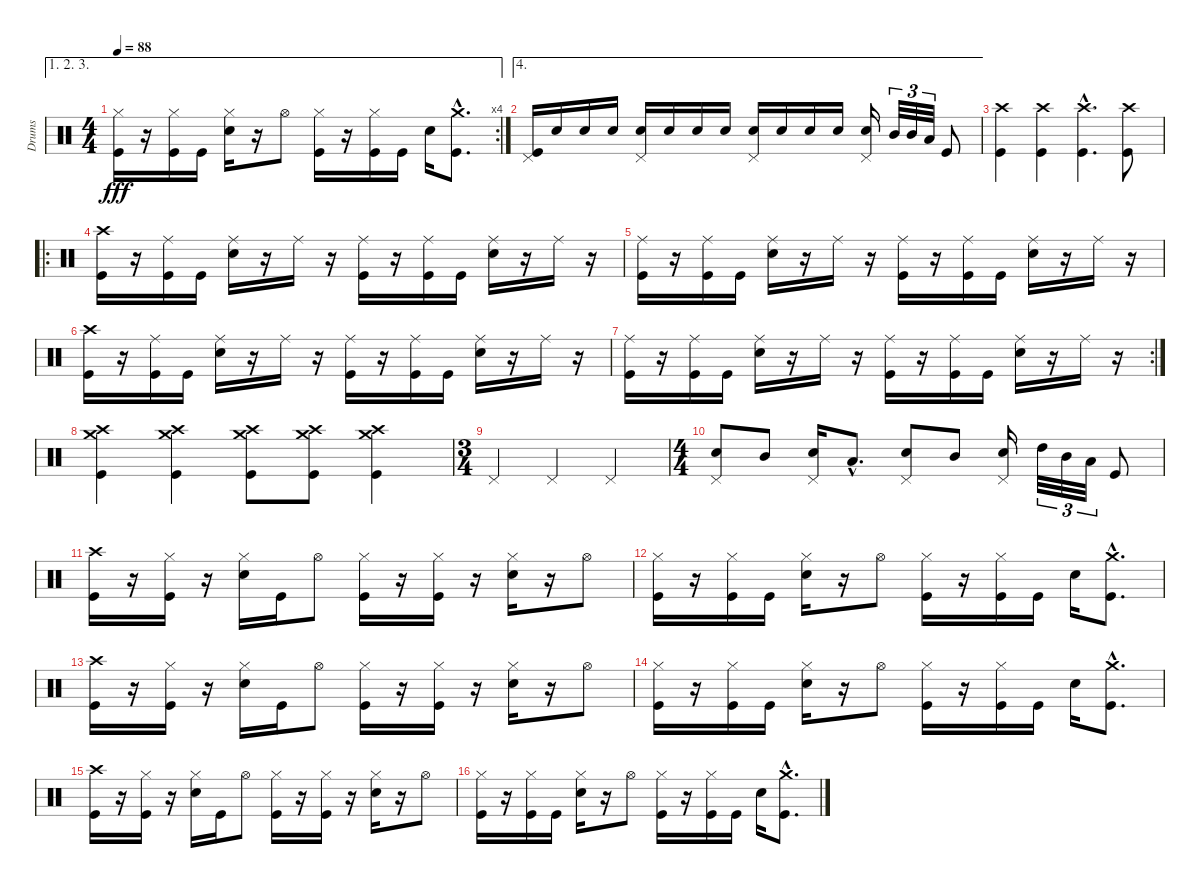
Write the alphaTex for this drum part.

\track ("Drums" "Drums") {instrument percussion}
\staff {score}
\articulation defaults
\ae (1 2 3)
\rc 4
\ts (4 4)
\tempo 88
\clef neutral
\ks c
("Hi-Hat (closed)" "Kick (hit)").16{dy fff} r.16 ("Hi-Hat (closed)" "Kick (hit)").16 "Kick (hit)".16 ("Hi-Hat (closed)" "Electric Snare (hit)").16 r.16 "Hi-Hat (open)".8 ("Hi-Hat (closed)" "Kick (hit)").16 r.16 ("Hi-Hat (closed)" "Kick (hit)").16 "Kick (hit)".16 "Electric Snare (hit)".16 ("Crash medium (hit)"{hac} "Kick (hit)"{hac}).8{d} |
\ae 4
("Pedal Hi-Hat (hit)" "Kick (hit)").16 "Electric Snare (hit)".16 "Electric Snare (hit)".16 "Electric Snare (hit)".16 ("Pedal Hi-Hat (hit)" "Electric Snare (hit)").16 "Electric Snare (hit)".16 "Electric Snare (hit)".16 "Electric Snare (hit)".16 ("Pedal Hi-Hat (hit)" "Electric Snare (hit)").16 "Electric Snare (hit)".16 "Electric Snare (hit)".16 "Electric Snare (hit)".16 ("Pedal Hi-Hat (hit)" "Electric Snare (hit)").16 "Mid Tom (hit)".32{tu (3 2)} "Mid Tom (hit)".32{tu (3 2)} "Low Tom (hit)".32{tu (3 2)} "Kick (hit)".8 |
("Crash high (hit)" "Kick (hit)").4 ("Crash high (hit)" "Kick (hit)").4 ("Crash high (hit)"{hac} "Kick (hit)"{hac}).4{d} ("Crash high (hit)" "Kick (hit)").8 |
\ro
("Crash high (hit)" "Kick (hit)").16 r.16 ("Ride (middle)" "Kick (hit)").16 "Kick (hit)".16 ("Ride (middle)" "Electric Snare (hit)").16 r.16 "Ride (middle)".16 r.16 ("Ride (middle)" "Kick (hit)").16 r.16 ("Ride (middle)" "Kick (hit)").16 "Kick (hit)".16 ("Ride (middle)" "Electric Snare (hit)").16 r.16 "Ride (middle)".16 r.16 |
("Ride (middle)" "Kick (hit)").16 r.16 ("Ride (middle)" "Kick (hit)").16 "Kick (hit)".16 ("Ride (middle)" "Electric Snare (hit)").16 r.16 "Ride (middle)".16 r.16 ("Ride (middle)" "Kick (hit)").16 r.16 ("Ride (middle)" "Kick (hit)").16 "Kick (hit)".16 ("Ride (middle)" "Electric Snare (hit)").16 r.16 "Ride (middle)".16 r.16 |
("Crash high (hit)" "Kick (hit)").16 r.16 ("Ride (middle)" "Kick (hit)").16 "Kick (hit)".16 ("Ride (middle)" "Electric Snare (hit)").16 r.16 "Ride (middle)".16 r.16 ("Ride (middle)" "Kick (hit)").16 r.16 ("Ride (middle)" "Kick (hit)").16 "Kick (hit)".16 ("Ride (middle)" "Electric Snare (hit)").16 r.16 "Ride (middle)".16 r.16 |
\rc 2
("Ride (middle)" "Kick (hit)").16 r.16 ("Ride (middle)" "Kick (hit)").16 "Kick (hit)".16 ("Ride (middle)" "Electric Snare (hit)").16 r.16 "Ride (middle)".16 r.16 ("Ride (middle)" "Kick (hit)").16 r.16 ("Ride (middle)" "Kick (hit)").16 "Kick (hit)".16 ("Ride (middle)" "Electric Snare (hit)").16 r.16 "Ride (middle)".16 r.16 |
("Crash medium (hit)" "Crash high (hit)" "Kick (hit)").4 ("Crash medium (hit)" "Crash high (hit)" "Kick (hit)").4 ("Crash medium (hit)" "Crash high (hit)" "Kick (hit)").8 ("Crash medium (hit)" "Crash high (hit)" "Kick (hit)").8 ("Crash medium (hit)" "Crash high (hit)" "Kick (hit)").4 |
\ts (3 4)
"Pedal Hi-Hat (hit)".4 "Pedal Hi-Hat (hit)".4 "Pedal Hi-Hat (hit)".4 |
\ts (4 4)
("Pedal Hi-Hat (hit)" "Electric Snare (hit)").8 "Mid Tom (hit)".8 ("Pedal Hi-Hat (hit)" "Electric Snare (hit)").16 "Low Tom (hit)"{hac}.8{d} ("Pedal Hi-Hat (hit)" "Electric Snare (hit)").8 "Mid Tom (hit)".8 ("Pedal Hi-Hat (hit)" "Electric Snare (hit)").16 "High Tom (hit)".32{tu (3 2)} "Mid Tom (hit)".32{tu (3 2)} "Low Tom (hit)".32{tu (3 2)} "Kick (hit)".8 |
("Crash high (hit)" "Kick (hit)").16 r.16 ("Hi-Hat (closed)" "Kick (hit)").16 r.16 ("Hi-Hat (closed)" "Electric Snare (hit)").16 "Kick (hit)".16 "Hi-Hat (open)".8 ("Hi-Hat (closed)" "Kick (hit)").16 r.16 ("Hi-Hat (closed)" "Kick (hit)").16 r.16 ("Hi-Hat (closed)" "Electric Snare (hit)").16 r.16 "Hi-Hat (open)".8 |
("Hi-Hat (closed)" "Kick (hit)").16 r.16 ("Hi-Hat (closed)" "Kick (hit)").16 "Kick (hit)".16 ("Hi-Hat (closed)" "Electric Snare (hit)").16 r.16 "Hi-Hat (open)".8 ("Hi-Hat (closed)" "Kick (hit)").16 r.16 ("Hi-Hat (closed)" "Kick (hit)").16 "Kick (hit)".16 "Electric Snare (hit)".16 ("Crash medium (hit)"{hac} "Kick (hit)"{hac}).8{d} |
("Crash high (hit)" "Kick (hit)").16 r.16 ("Hi-Hat (closed)" "Kick (hit)").16 r.16 ("Hi-Hat (closed)" "Electric Snare (hit)").16 "Kick (hit)".16 "Hi-Hat (open)".8 ("Hi-Hat (closed)" "Kick (hit)").16 r.16 ("Hi-Hat (closed)" "Kick (hit)").16 r.16 ("Hi-Hat (closed)" "Electric Snare (hit)").16 r.16 "Hi-Hat (open)".8 |
("Hi-Hat (closed)" "Kick (hit)").16 r.16 ("Hi-Hat (closed)" "Kick (hit)").16 "Kick (hit)".16 ("Hi-Hat (closed)" "Electric Snare (hit)").16 r.16 "Hi-Hat (open)".8 ("Hi-Hat (closed)" "Kick (hit)").16 r.16 ("Hi-Hat (closed)" "Kick (hit)").16 "Kick (hit)".16 "Electric Snare (hit)".16 ("Crash medium (hit)"{hac} "Kick (hit)"{hac}).8{d} |
("Crash high (hit)" "Kick (hit)").16 r.16 ("Hi-Hat (closed)" "Kick (hit)").16 r.16 ("Hi-Hat (closed)" "Electric Snare (hit)").16 "Kick (hit)".16 "Hi-Hat (open)".8 ("Hi-Hat (closed)" "Kick (hit)").16 r.16 ("Hi-Hat (closed)" "Kick (hit)").16 r.16 ("Hi-Hat (closed)" "Electric Snare (hit)").16 r.16 "Hi-Hat (open)".8 |
("Hi-Hat (closed)" "Kick (hit)").16 r.16 ("Hi-Hat (closed)" "Kick (hit)").16 "Kick (hit)".16 ("Hi-Hat (closed)" "Electric Snare (hit)").16 r.16 "Hi-Hat (open)".8 ("Hi-Hat (closed)" "Kick (hit)").16 r.16 ("Hi-Hat (closed)" "Kick (hit)").16 "Kick (hit)".16 "Electric Snare (hit)".16 ("Crash medium (hit)"{hac} "Kick (hit)"{hac}).8{d}
